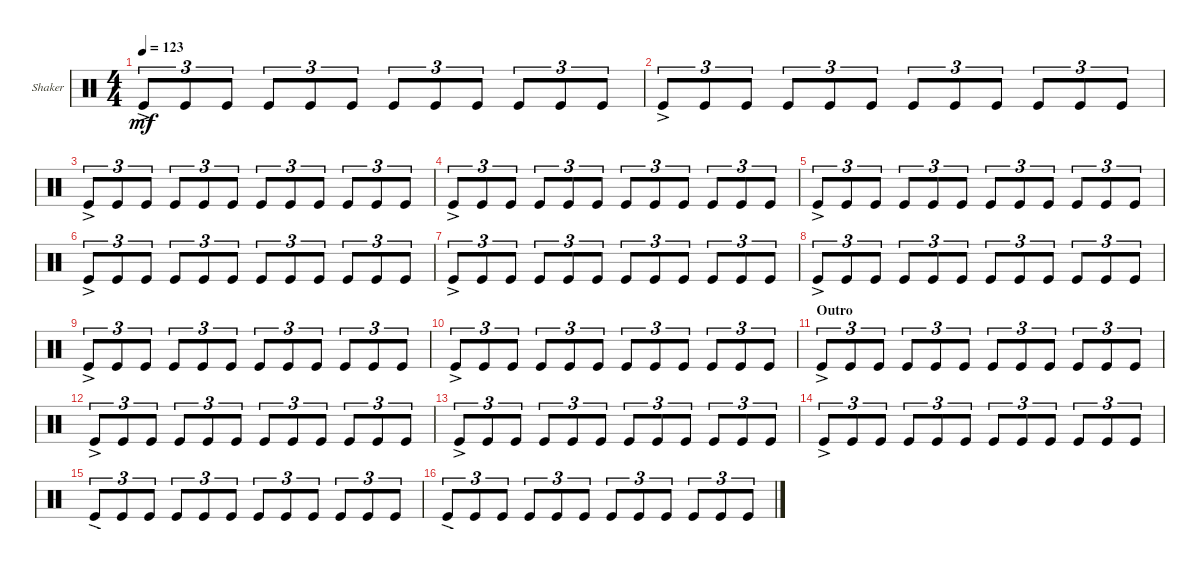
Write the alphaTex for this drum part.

\defaultSystemsLayout 4
\bracketExtendMode groupsimilarinstruments
\firstSystemTrackNameOrientation horizontal
\otherSystemsTrackNameOrientation horizontal
\track ("Shaker" "Shaker") {multiBarRest instrument percussion}
\staff {score}
\articulation defaults
\ts (4 4)
\tempo 123
\clef neutral
\ks c "Kick (hit)"{ac}.8{tu (3 2) dy mf} "Kick (hit)".8{tu (3 2)} "Kick (hit)".8{tu (3 2)} "Kick (hit)".8{tu (3 2)} "Kick (hit)".8{tu (3 2)} "Kick (hit)".8{tu (3 2)} "Kick (hit)".8{tu (3 2)} "Kick (hit)".8{tu (3 2)} "Kick (hit)".8{tu (3 2)} "Kick (hit)".8{tu (3 2)} "Kick (hit)".8{tu (3 2)} "Kick (hit)".8{tu (3 2)}
|
"Kick (hit)"{ac}.8{tu (3 2)} "Kick (hit)".8{tu (3 2)} "Kick (hit)".8{tu (3 2)} "Kick (hit)".8{tu (3 2)} "Kick (hit)".8{tu (3 2)} "Kick (hit)".8{tu (3 2)} "Kick (hit)".8{tu (3 2)} "Kick (hit)".8{tu (3 2)} "Kick (hit)".8{tu (3 2)} "Kick (hit)".8{tu (3 2)} "Kick (hit)".8{tu (3 2)} "Kick (hit)".8{tu (3 2)} |
"Kick (hit)"{ac}.8{tu (3 2)} "Kick (hit)".8{tu (3 2)} "Kick (hit)".8{tu (3 2)} "Kick (hit)".8{tu (3 2)} "Kick (hit)".8{tu (3 2)} "Kick (hit)".8{tu (3 2)} "Kick (hit)".8{tu (3 2)} "Kick (hit)".8{tu (3 2)} "Kick (hit)".8{tu (3 2)} "Kick (hit)".8{tu (3 2)} "Kick (hit)".8{tu (3 2)} "Kick (hit)".8{tu (3 2)} |
"Kick (hit)"{ac}.8{tu (3 2)} "Kick (hit)".8{tu (3 2)} "Kick (hit)".8{tu (3 2)} "Kick (hit)".8{tu (3 2)} "Kick (hit)".8{tu (3 2)} "Kick (hit)".8{tu (3 2)} "Kick (hit)".8{tu (3 2)} "Kick (hit)".8{tu (3 2)} "Kick (hit)".8{tu (3 2)} "Kick (hit)".8{tu (3 2)} "Kick (hit)".8{tu (3 2)} "Kick (hit)".8{tu (3 2)} |
"Kick (hit)"{ac}.8{tu (3 2)} "Kick (hit)".8{tu (3 2)} "Kick (hit)".8{tu (3 2)} "Kick (hit)".8{tu (3 2)} "Kick (hit)".8{tu (3 2)} "Kick (hit)".8{tu (3 2)} "Kick (hit)".8{tu (3 2)} "Kick (hit)".8{tu (3 2)} "Kick (hit)".8{tu (3 2)} "Kick (hit)".8{tu (3 2)} "Kick (hit)".8{tu (3 2)} "Kick (hit)".8{tu (3 2)} |
"Kick (hit)"{ac}.8{tu (3 2)} "Kick (hit)".8{tu (3 2)} "Kick (hit)".8{tu (3 2)} "Kick (hit)".8{tu (3 2)} "Kick (hit)".8{tu (3 2)} "Kick (hit)".8{tu (3 2)} "Kick (hit)".8{tu (3 2)} "Kick (hit)".8{tu (3 2)} "Kick (hit)".8{tu (3 2)} "Kick (hit)".8{tu (3 2)} "Kick (hit)".8{tu (3 2)} "Kick (hit)".8{tu (3 2)} |
"Kick (hit)"{ac}.8{tu (3 2)} "Kick (hit)".8{tu (3 2)} "Kick (hit)".8{tu (3 2)} "Kick (hit)".8{tu (3 2)} "Kick (hit)".8{tu (3 2)} "Kick (hit)".8{tu (3 2)} "Kick (hit)".8{tu (3 2)} "Kick (hit)".8{tu (3 2)} "Kick (hit)".8{tu (3 2)} "Kick (hit)".8{tu (3 2)} "Kick (hit)".8{tu (3 2)} "Kick (hit)".8{tu (3 2)} |
"Kick (hit)"{ac}.8{tu (3 2)} "Kick (hit)".8{tu (3 2)} "Kick (hit)".8{tu (3 2)} "Kick (hit)".8{tu (3 2)} "Kick (hit)".8{tu (3 2)} "Kick (hit)".8{tu (3 2)} "Kick (hit)".8{tu (3 2)} "Kick (hit)".8{tu (3 2)} "Kick (hit)".8{tu (3 2)} "Kick (hit)".8{tu (3 2)} "Kick (hit)".8{tu (3 2)} "Kick (hit)".8{tu (3 2)} |
"Kick (hit)"{ac}.8{tu (3 2)} "Kick (hit)".8{tu (3 2)} "Kick (hit)".8{tu (3 2)} "Kick (hit)".8{tu (3 2)} "Kick (hit)".8{tu (3 2)} "Kick (hit)".8{tu (3 2)} "Kick (hit)".8{tu (3 2)} "Kick (hit)".8{tu (3 2)} "Kick (hit)".8{tu (3 2)} "Kick (hit)".8{tu (3 2)} "Kick (hit)".8{tu (3 2)} "Kick (hit)".8{tu (3 2)} |
"Kick (hit)"{ac}.8{tu (3 2)} "Kick (hit)".8{tu (3 2)} "Kick (hit)".8{tu (3 2)} "Kick (hit)".8{tu (3 2)} "Kick (hit)".8{tu (3 2)} "Kick (hit)".8{tu (3 2)} "Kick (hit)".8{tu (3 2)} "Kick (hit)".8{tu (3 2)} "Kick (hit)".8{tu (3 2)} "Kick (hit)".8{tu (3 2)} "Kick (hit)".8{tu (3 2)} "Kick (hit)".8{tu (3 2)} |
\section ("" "Outro")
"Kick (hit)"{ac}.8{tu (3 2)} "Kick (hit)".8{tu (3 2)} "Kick (hit)".8{tu (3 2)} "Kick (hit)".8{tu (3 2)} "Kick (hit)".8{tu (3 2)} "Kick (hit)".8{tu (3 2)} "Kick (hit)".8{tu (3 2)} "Kick (hit)".8{tu (3 2)} "Kick (hit)".8{tu (3 2)} "Kick (hit)".8{tu (3 2)} "Kick (hit)".8{tu (3 2)} "Kick (hit)".8{tu (3 2)} |
"Kick (hit)"{ac}.8{tu (3 2)} "Kick (hit)".8{tu (3 2)} "Kick (hit)".8{tu (3 2)} "Kick (hit)".8{tu (3 2)} "Kick (hit)".8{tu (3 2)} "Kick (hit)".8{tu (3 2)} "Kick (hit)".8{tu (3 2)} "Kick (hit)".8{tu (3 2)} "Kick (hit)".8{tu (3 2)} "Kick (hit)".8{tu (3 2)} "Kick (hit)".8{tu (3 2)} "Kick (hit)".8{tu (3 2)} |
"Kick (hit)"{ac}.8{tu (3 2)} "Kick (hit)".8{tu (3 2)} "Kick (hit)".8{tu (3 2)} "Kick (hit)".8{tu (3 2)} "Kick (hit)".8{tu (3 2)} "Kick (hit)".8{tu (3 2)} "Kick (hit)".8{tu (3 2)} "Kick (hit)".8{tu (3 2)} "Kick (hit)".8{tu (3 2)} "Kick (hit)".8{tu (3 2)} "Kick (hit)".8{tu (3 2)} "Kick (hit)".8{tu (3 2)} |
"Kick (hit)"{ac}.8{tu (3 2)} "Kick (hit)".8{tu (3 2)} "Kick (hit)".8{tu (3 2)} "Kick (hit)".8{tu (3 2)} "Kick (hit)".8{tu (3 2)} "Kick (hit)".8{tu (3 2)} "Kick (hit)".8{tu (3 2)} "Kick (hit)".8{tu (3 2)} "Kick (hit)".8{tu (3 2)} "Kick (hit)".8{tu (3 2)} "Kick (hit)".8{tu (3 2)} "Kick (hit)".8{tu (3 2)} |
"Kick (hit)"{ac}.8{tu (3 2)} "Kick (hit)".8{tu (3 2)} "Kick (hit)".8{tu (3 2)} "Kick (hit)".8{tu (3 2)} "Kick (hit)".8{tu (3 2)} "Kick (hit)".8{tu (3 2)} "Kick (hit)".8{tu (3 2)} "Kick (hit)".8{tu (3 2)} "Kick (hit)".8{tu (3 2)} "Kick (hit)".8{tu (3 2)} "Kick (hit)".8{tu (3 2)} "Kick (hit)".8{tu (3 2)} |
"Kick (hit)"{ac}.8{tu (3 2)} "Kick (hit)".8{tu (3 2)} "Kick (hit)".8{tu (3 2)} "Kick (hit)".8{tu (3 2)} "Kick (hit)".8{tu (3 2)} "Kick (hit)".8{tu (3 2)} "Kick (hit)".8{tu (3 2)} "Kick (hit)".8{tu (3 2)} "Kick (hit)".8{tu (3 2)} "Kick (hit)".8{tu (3 2)} "Kick (hit)".8{tu (3 2)} "Kick (hit)".8{tu (3 2)}
